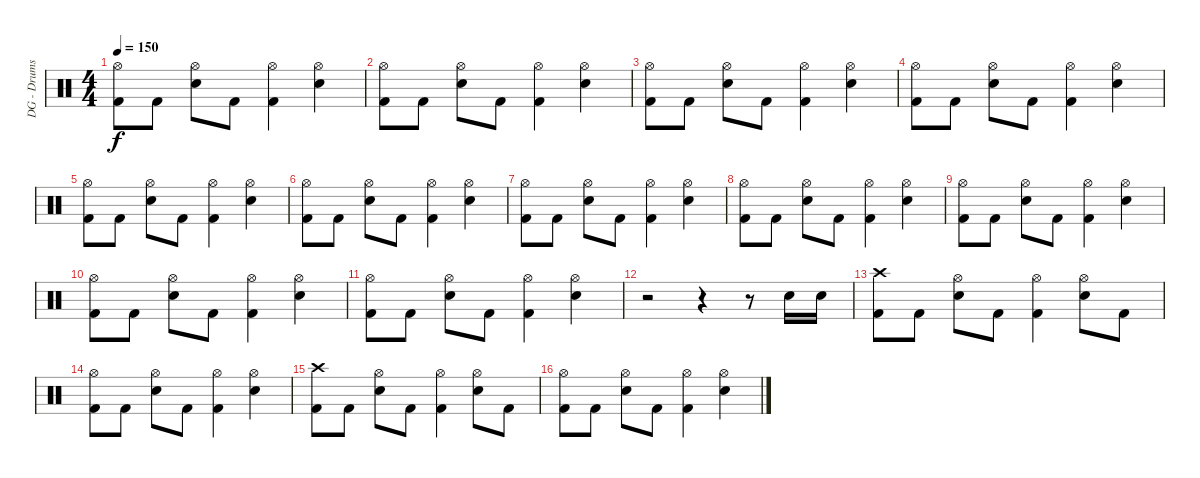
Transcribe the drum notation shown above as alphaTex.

\track ("DG - Drums" "DG - Drums") {instrument percussion}
\staff {score}
\articulation defaults
\ts (4 4)
\tempo 150
\clef neutral
\ks c
("Hi-Hat (open)" "Kick (hit) 2").8{dy f} "Kick (hit) 2".8 ("Hi-Hat (open)" "Electric Snare (hit)").8 "Kick (hit) 2".8 ("Hi-Hat (open)" "Kick (hit) 2").4 ("Hi-Hat (open)" "Electric Snare (hit)").4 |
("Hi-Hat (open)" "Kick (hit) 2").8 "Kick (hit) 2".8 ("Hi-Hat (open)" "Electric Snare (hit)").8 "Kick (hit) 2".8 ("Hi-Hat (open)" "Kick (hit) 2").4 ("Hi-Hat (open)" "Electric Snare (hit)").4 |
("Hi-Hat (open)" "Kick (hit) 2").8 "Kick (hit) 2".8 ("Hi-Hat (open)" "Electric Snare (hit)").8 "Kick (hit) 2".8 ("Hi-Hat (open)" "Kick (hit) 2").4 ("Hi-Hat (open)" "Electric Snare (hit)").4 |
("Hi-Hat (open)" "Kick (hit) 2").8 "Kick (hit) 2".8 ("Hi-Hat (open)" "Electric Snare (hit)").8 "Kick (hit) 2".8 ("Hi-Hat (open)" "Kick (hit) 2").4 ("Hi-Hat (open)" "Electric Snare (hit)").4 |
("Hi-Hat (open)" "Kick (hit) 2").8 "Kick (hit) 2".8 ("Hi-Hat (open)" "Electric Snare (hit)").8 "Kick (hit) 2".8 ("Hi-Hat (open)" "Kick (hit) 2").4 ("Hi-Hat (open)" "Electric Snare (hit)").4 |
("Hi-Hat (open)" "Kick (hit) 2").8 "Kick (hit) 2".8 ("Hi-Hat (open)" "Electric Snare (hit)").8 "Kick (hit) 2".8 ("Hi-Hat (open)" "Kick (hit) 2").4 ("Hi-Hat (open)" "Electric Snare (hit)").4 |
("Hi-Hat (open)" "Kick (hit) 2").8 "Kick (hit) 2".8 ("Hi-Hat (open)" "Electric Snare (hit)").8 "Kick (hit) 2".8 ("Hi-Hat (open)" "Kick (hit) 2").4 ("Hi-Hat (open)" "Electric Snare (hit)").4 |
("Hi-Hat (open)" "Kick (hit) 2").8 "Kick (hit) 2".8 ("Hi-Hat (open)" "Electric Snare (hit)").8 "Kick (hit) 2".8 ("Hi-Hat (open)" "Kick (hit) 2").4 ("Hi-Hat (open)" "Electric Snare (hit)").4 |
("Hi-Hat (open)" "Kick (hit) 2").8 "Kick (hit) 2".8 ("Hi-Hat (open)" "Electric Snare (hit)").8 "Kick (hit) 2".8 ("Hi-Hat (open)" "Kick (hit) 2").4 ("Hi-Hat (open)" "Electric Snare (hit)").4 |
("Hi-Hat (open)" "Kick (hit) 2").8 "Kick (hit) 2".8 ("Hi-Hat (open)" "Electric Snare (hit)").8 "Kick (hit) 2".8 ("Hi-Hat (open)" "Kick (hit) 2").4 ("Hi-Hat (open)" "Electric Snare (hit)").4 |
("Hi-Hat (open)" "Kick (hit) 2").8 "Kick (hit) 2".8 ("Hi-Hat (open)" "Electric Snare (hit)").8 "Kick (hit) 2".8 ("Hi-Hat (open)" "Kick (hit) 2").4 ("Hi-Hat (open)" "Electric Snare (hit)").4 |
r.2 r.4 r.8 "Electric Snare (hit)".16 "Electric Snare (hit)".16 |
("Crash high (hit)" "Kick (hit) 2").8 "Kick (hit) 2".8 ("Hi-Hat (open)" "Electric Snare (hit)").8 "Kick (hit) 2".8 ("Hi-Hat (open)" "Kick (hit) 2").4 ("Hi-Hat (open)" "Electric Snare (hit)").8 "Kick (hit) 2".8 |
("Hi-Hat (open)" "Kick (hit) 2").8 "Kick (hit) 2".8 ("Hi-Hat (open)" "Electric Snare (hit)").8 "Kick (hit) 2".8 ("Hi-Hat (open)" "Kick (hit) 2").4 ("Hi-Hat (open)" "Electric Snare (hit)").4 |
("Crash high (hit)" "Kick (hit) 2").8 "Kick (hit) 2".8 ("Hi-Hat (open)" "Electric Snare (hit)").8 "Kick (hit) 2".8 ("Hi-Hat (open)" "Kick (hit) 2").4 ("Hi-Hat (open)" "Electric Snare (hit)").8 "Kick (hit) 2".8 |
("Hi-Hat (open)" "Kick (hit) 2").8 "Kick (hit) 2".8 ("Hi-Hat (open)" "Electric Snare (hit)").8 "Kick (hit) 2".8 ("Hi-Hat (open)" "Kick (hit) 2").4 ("Hi-Hat (open)" "Electric Snare (hit)").4
